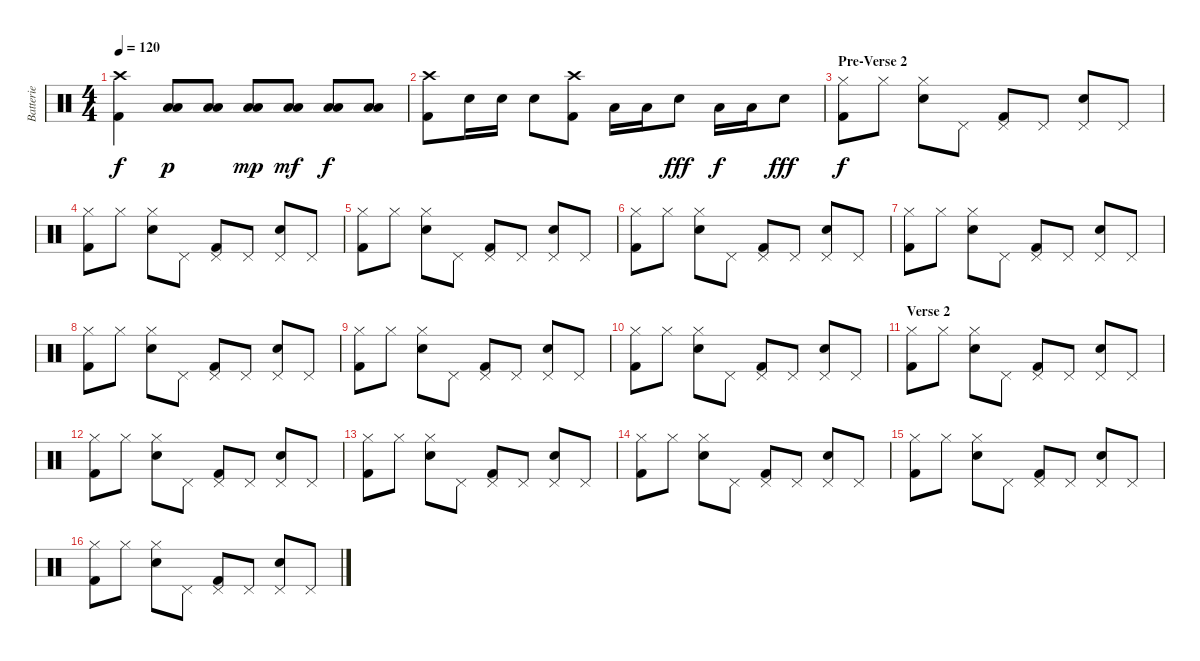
\track ("Batterie" "Batterie") {instrument percussion}
\staff {score}
\articulation defaults
\ts (4 4)
\tempo 120
\clef neutral
\ks c
("Crash high (hit)" "Kick (hit) 2").4{dy f} ("Low Floor Tom (hit)" "Low Tom (hit)").8{dy p} ("Low Floor Tom (hit)" "Low Tom (hit)").8 ("Low Floor Tom (hit)" "Low Tom (hit)").8{dy mp} ("Low Floor Tom (hit)" "Low Tom (hit)").8{dy mf} ("Low Floor Tom (hit)" "Low Tom (hit)").8{dy f} ("Low Floor Tom (hit)" "Low Tom (hit)").8 |
("Crash high (hit)" "Kick (hit) 2").8 "Electric Snare (hit)".16 "Electric Snare (hit)".16 "Electric Snare (hit)".8 ("Crash high (hit)" "Kick (hit) 2").8 "Low Tom (hit)".16 "Low Tom (hit)".16 "Electric Snare (hit)".8{dy fff} "Low Tom (hit)".16{dy f} "Low Tom (hit)".16 "Electric Snare (hit)".8{dy fff} |
\section ("" "Pre-Verse 2")
("Hi-Hat (closed)" "Kick (hit) 2").8{dy f} "Hi-Hat (closed)".8 ("Hi-Hat (closed)" "Electric Snare (hit)").8 "Pedal Hi-Hat (hit)".8 ("Pedal Hi-Hat (hit)" "Kick (hit) 2").8 "Pedal Hi-Hat (hit)".8 ("Pedal Hi-Hat (hit)" "Electric Snare (hit)").8 "Pedal Hi-Hat (hit)".8 |
("Hi-Hat (closed)" "Kick (hit) 2").8 "Hi-Hat (closed)".8 ("Hi-Hat (closed)" "Electric Snare (hit)").8 "Pedal Hi-Hat (hit)".8 ("Pedal Hi-Hat (hit)" "Kick (hit) 2").8 "Pedal Hi-Hat (hit)".8 ("Pedal Hi-Hat (hit)" "Electric Snare (hit)").8 "Pedal Hi-Hat (hit)".8 |
("Hi-Hat (closed)" "Kick (hit) 2").8 "Hi-Hat (closed)".8 ("Hi-Hat (closed)" "Electric Snare (hit)").8 "Pedal Hi-Hat (hit)".8 ("Pedal Hi-Hat (hit)" "Kick (hit) 2").8 "Pedal Hi-Hat (hit)".8 ("Pedal Hi-Hat (hit)" "Electric Snare (hit)").8 "Pedal Hi-Hat (hit)".8 |
("Hi-Hat (closed)" "Kick (hit) 2").8 "Hi-Hat (closed)".8 ("Hi-Hat (closed)" "Electric Snare (hit)").8 "Pedal Hi-Hat (hit)".8 ("Pedal Hi-Hat (hit)" "Kick (hit) 2").8 "Pedal Hi-Hat (hit)".8 ("Pedal Hi-Hat (hit)" "Electric Snare (hit)").8 "Pedal Hi-Hat (hit)".8 |
("Hi-Hat (closed)" "Kick (hit) 2").8 "Hi-Hat (closed)".8 ("Hi-Hat (closed)" "Electric Snare (hit)").8 "Pedal Hi-Hat (hit)".8 ("Pedal Hi-Hat (hit)" "Kick (hit) 2").8 "Pedal Hi-Hat (hit)".8 ("Pedal Hi-Hat (hit)" "Electric Snare (hit)").8 "Pedal Hi-Hat (hit)".8 |
("Hi-Hat (closed)" "Kick (hit) 2").8 "Hi-Hat (closed)".8 ("Hi-Hat (closed)" "Electric Snare (hit)").8 "Pedal Hi-Hat (hit)".8 ("Pedal Hi-Hat (hit)" "Kick (hit) 2").8 "Pedal Hi-Hat (hit)".8 ("Pedal Hi-Hat (hit)" "Electric Snare (hit)").8 "Pedal Hi-Hat (hit)".8 |
("Hi-Hat (closed)" "Kick (hit) 2").8 "Hi-Hat (closed)".8 ("Hi-Hat (closed)" "Electric Snare (hit)").8 "Pedal Hi-Hat (hit)".8 ("Pedal Hi-Hat (hit)" "Kick (hit) 2").8 "Pedal Hi-Hat (hit)".8 ("Pedal Hi-Hat (hit)" "Electric Snare (hit)").8 "Pedal Hi-Hat (hit)".8 |
("Hi-Hat (closed)" "Kick (hit) 2").8 "Hi-Hat (closed)".8 ("Hi-Hat (closed)" "Electric Snare (hit)").8 "Pedal Hi-Hat (hit)".8 ("Pedal Hi-Hat (hit)" "Kick (hit) 2").8 "Pedal Hi-Hat (hit)".8 ("Pedal Hi-Hat (hit)" "Electric Snare (hit)").8 "Pedal Hi-Hat (hit)".8 |
\section ("" "Verse 2")
("Hi-Hat (closed)" "Kick (hit) 2").8 "Hi-Hat (closed)".8 ("Hi-Hat (closed)" "Electric Snare (hit)").8 "Pedal Hi-Hat (hit)".8 ("Pedal Hi-Hat (hit)" "Kick (hit) 2").8 "Pedal Hi-Hat (hit)".8 ("Pedal Hi-Hat (hit)" "Electric Snare (hit)").8 "Pedal Hi-Hat (hit)".8 |
("Hi-Hat (closed)" "Kick (hit) 2").8 "Hi-Hat (closed)".8 ("Hi-Hat (closed)" "Electric Snare (hit)").8 "Pedal Hi-Hat (hit)".8 ("Pedal Hi-Hat (hit)" "Kick (hit) 2").8 "Pedal Hi-Hat (hit)".8 ("Pedal Hi-Hat (hit)" "Electric Snare (hit)").8 "Pedal Hi-Hat (hit)".8 |
("Hi-Hat (closed)" "Kick (hit) 2").8 "Hi-Hat (closed)".8 ("Hi-Hat (closed)" "Electric Snare (hit)").8 "Pedal Hi-Hat (hit)".8 ("Pedal Hi-Hat (hit)" "Kick (hit) 2").8 "Pedal Hi-Hat (hit)".8 ("Pedal Hi-Hat (hit)" "Electric Snare (hit)").8 "Pedal Hi-Hat (hit)".8 |
("Hi-Hat (closed)" "Kick (hit) 2").8 "Hi-Hat (closed)".8 ("Hi-Hat (closed)" "Electric Snare (hit)").8 "Pedal Hi-Hat (hit)".8 ("Pedal Hi-Hat (hit)" "Kick (hit) 2").8 "Pedal Hi-Hat (hit)".8 ("Pedal Hi-Hat (hit)" "Electric Snare (hit)").8 "Pedal Hi-Hat (hit)".8 |
("Hi-Hat (closed)" "Kick (hit) 2").8 "Hi-Hat (closed)".8 ("Hi-Hat (closed)" "Electric Snare (hit)").8 "Pedal Hi-Hat (hit)".8 ("Pedal Hi-Hat (hit)" "Kick (hit) 2").8 "Pedal Hi-Hat (hit)".8 ("Pedal Hi-Hat (hit)" "Electric Snare (hit)").8 "Pedal Hi-Hat (hit)".8 |
("Hi-Hat (closed)" "Kick (hit) 2").8 "Hi-Hat (closed)".8 ("Hi-Hat (closed)" "Electric Snare (hit)").8 "Pedal Hi-Hat (hit)".8 ("Pedal Hi-Hat (hit)" "Kick (hit) 2").8 "Pedal Hi-Hat (hit)".8 ("Pedal Hi-Hat (hit)" "Electric Snare (hit)").8 "Pedal Hi-Hat (hit)".8
